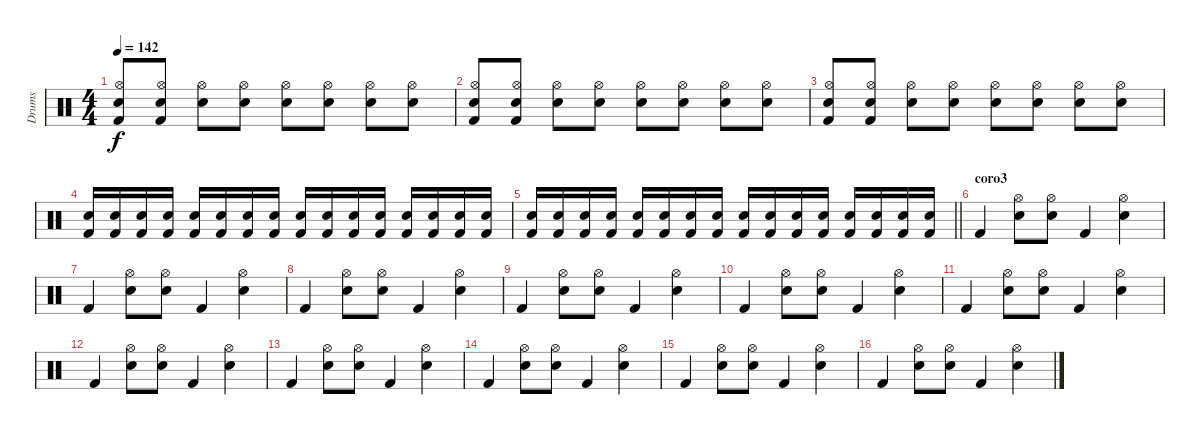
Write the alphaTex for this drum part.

\track ("Drums" "Drums") {instrument percussion}
\staff {score}
\articulation defaults
\ts (4 4)
\tempo 142
\clef neutral
\ks c
("Electric Snare (hit)" "Hi-Hat (open)" "Kick (hit) 2").8{dy f} ("Electric Snare (hit)" "Hi-Hat (open)" "Kick (hit) 2").8 ("Electric Snare (hit)" "Hi-Hat (open)").8 ("Electric Snare (hit)" "Hi-Hat (open)").8 ("Electric Snare (hit)" "Hi-Hat (open)").8 ("Electric Snare (hit)" "Hi-Hat (open)").8 ("Electric Snare (hit)" "Hi-Hat (open)").8 ("Electric Snare (hit)" "Hi-Hat (open)").8 |
("Electric Snare (hit)" "Hi-Hat (open)" "Kick (hit) 2").8 ("Electric Snare (hit)" "Hi-Hat (open)" "Kick (hit) 2").8 ("Electric Snare (hit)" "Hi-Hat (open)").8 ("Electric Snare (hit)" "Hi-Hat (open)").8 ("Electric Snare (hit)" "Hi-Hat (open)").8 ("Electric Snare (hit)" "Hi-Hat (open)").8 ("Electric Snare (hit)" "Hi-Hat (open)").8 ("Electric Snare (hit)" "Hi-Hat (open)").8 |
("Electric Snare (hit)" "Hi-Hat (open)" "Kick (hit) 2").8 ("Electric Snare (hit)" "Hi-Hat (open)" "Kick (hit) 2").8 ("Electric Snare (hit)" "Hi-Hat (open)").8 ("Electric Snare (hit)" "Hi-Hat (open)").8 ("Electric Snare (hit)" "Hi-Hat (open)").8 ("Electric Snare (hit)" "Hi-Hat (open)").8 ("Electric Snare (hit)" "Hi-Hat (open)").8 ("Electric Snare (hit)" "Hi-Hat (open)").8 |
("Electric Snare (hit)" "Kick (hit) 2").16 ("Electric Snare (hit)" "Kick (hit) 2").16 ("Electric Snare (hit)" "Kick (hit) 2").16 ("Electric Snare (hit)" "Kick (hit) 2").16 ("Electric Snare (hit)" "Kick (hit) 2").16 ("Electric Snare (hit)" "Kick (hit) 2").16 ("Electric Snare (hit)" "Kick (hit) 2").16 ("Electric Snare (hit)" "Kick (hit) 2").16 ("Electric Snare (hit)" "Kick (hit) 2").16 ("Electric Snare (hit)" "Kick (hit) 2").16 ("Electric Snare (hit)" "Kick (hit) 2").16 ("Electric Snare (hit)" "Kick (hit) 2").16 ("Electric Snare (hit)" "Kick (hit) 2").16 ("Electric Snare (hit)" "Kick (hit) 2").16 ("Electric Snare (hit)" "Kick (hit) 2").16 ("Electric Snare (hit)" "Kick (hit) 2").16 |
\barLineRight lightlight
("Electric Snare (hit)" "Kick (hit) 2").16 ("Electric Snare (hit)" "Kick (hit) 2").16 ("Electric Snare (hit)" "Kick (hit) 2").16 ("Electric Snare (hit)" "Kick (hit) 2").16 ("Electric Snare (hit)" "Kick (hit) 2").16 ("Electric Snare (hit)" "Kick (hit) 2").16 ("Electric Snare (hit)" "Kick (hit) 2").16 ("Electric Snare (hit)" "Kick (hit) 2").16 ("Electric Snare (hit)" "Kick (hit) 2").16 ("Electric Snare (hit)" "Kick (hit) 2").16 ("Electric Snare (hit)" "Kick (hit) 2").16 ("Electric Snare (hit)" "Kick (hit) 2").16 ("Electric Snare (hit)" "Kick (hit) 2").16 ("Electric Snare (hit)" "Kick (hit) 2").16 ("Electric Snare (hit)" "Kick (hit) 2").16 ("Electric Snare (hit)" "Kick (hit) 2").16 |
\section ("" "coro3")
"Kick (hit) 2".4 ("Electric Snare (hit)" "Hi-Hat (open)").8 ("Electric Snare (hit)" "Hi-Hat (open)").8 "Kick (hit) 2".4 ("Electric Snare (hit)" "Hi-Hat (open)").4 |
"Kick (hit) 2".4 ("Electric Snare (hit)" "Hi-Hat (open)").8 ("Electric Snare (hit)" "Hi-Hat (open)").8 "Kick (hit) 2".4 ("Electric Snare (hit)" "Hi-Hat (open)").4 |
"Kick (hit) 2".4 ("Electric Snare (hit)" "Hi-Hat (open)").8 ("Electric Snare (hit)" "Hi-Hat (open)").8 "Kick (hit) 2".4 ("Electric Snare (hit)" "Hi-Hat (open)").4 |
"Kick (hit) 2".4 ("Electric Snare (hit)" "Hi-Hat (open)").8 ("Electric Snare (hit)" "Hi-Hat (open)").8 "Kick (hit) 2".4 ("Electric Snare (hit)" "Hi-Hat (open)").4 |
"Kick (hit) 2".4 ("Electric Snare (hit)" "Hi-Hat (open)").8 ("Electric Snare (hit)" "Hi-Hat (open)").8 "Kick (hit) 2".4 ("Electric Snare (hit)" "Hi-Hat (open)").4 |
"Kick (hit) 2".4 ("Electric Snare (hit)" "Hi-Hat (open)").8 ("Electric Snare (hit)" "Hi-Hat (open)").8 "Kick (hit) 2".4 ("Electric Snare (hit)" "Hi-Hat (open)").4 |
"Kick (hit) 2".4 ("Electric Snare (hit)" "Hi-Hat (open)").8 ("Electric Snare (hit)" "Hi-Hat (open)").8 "Kick (hit) 2".4 ("Electric Snare (hit)" "Hi-Hat (open)").4 |
"Kick (hit) 2".4 ("Electric Snare (hit)" "Hi-Hat (open)").8 ("Electric Snare (hit)" "Hi-Hat (open)").8 "Kick (hit) 2".4 ("Electric Snare (hit)" "Hi-Hat (open)").4 |
"Kick (hit) 2".4 ("Electric Snare (hit)" "Hi-Hat (open)").8 ("Electric Snare (hit)" "Hi-Hat (open)").8 "Kick (hit) 2".4 ("Electric Snare (hit)" "Hi-Hat (open)").4 |
"Kick (hit) 2".4 ("Electric Snare (hit)" "Hi-Hat (open)").8 ("Electric Snare (hit)" "Hi-Hat (open)").8 "Kick (hit) 2".4 ("Electric Snare (hit)" "Hi-Hat (open)").4 |
"Kick (hit) 2".4 ("Electric Snare (hit)" "Hi-Hat (open)").8 ("Electric Snare (hit)" "Hi-Hat (open)").8 "Kick (hit) 2".4 ("Electric Snare (hit)" "Hi-Hat (open)").4
